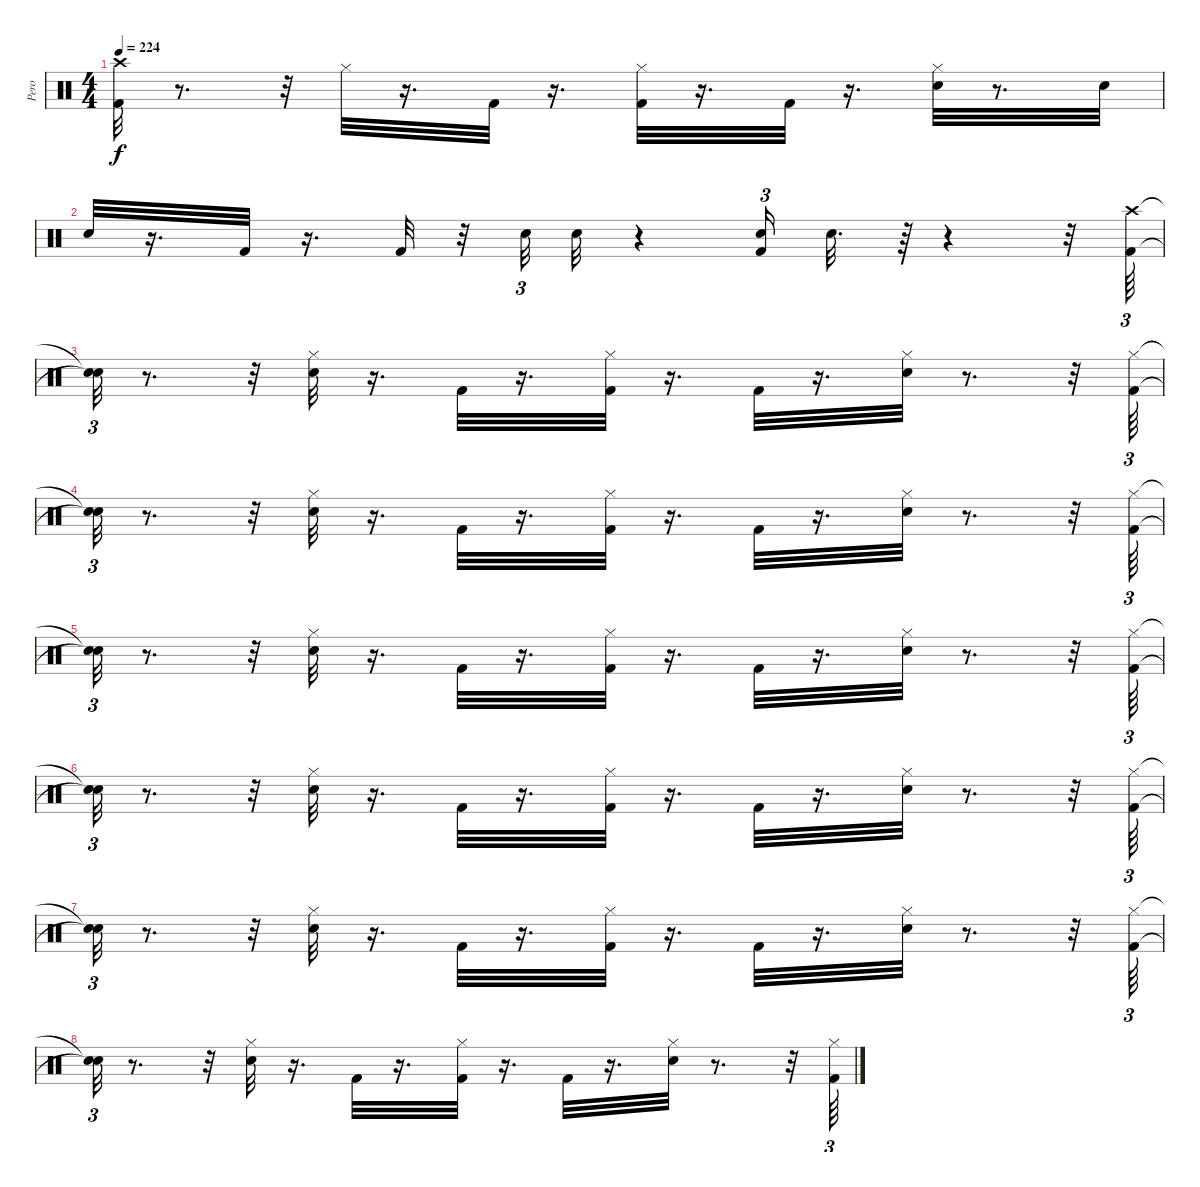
\track ("Pero" "Pero") {instrument percussion}
\staff {score}
\articulation defaults
\ts (4 4)
\tempo 224
\clef neutral
\ks c
("Crash high (hit)" "Kick (hit) 2").32{dy f} r.8{d} r.32 "Hi-Hat (closed)".32 r.16{d} "Kick (hit) 2".32 r.16{d} ("Hi-Hat (closed)" "Kick (hit) 2").32 r.16{d} "Kick (hit) 2".32 r.16{d} ("Hi-Hat (closed)" "Snare (hit) 2").32 r.8{d} "Snare (hit) 2".32 |
"Snare (hit) 2".32 r.16{d} "Kick (hit) 2".32 r.16{d} "Kick (hit) 2".32 r.32 "Snare (hit) 2".32{tu (3 2)} "Snare (hit) 2".32 r.4 ("Kick (hit) 2" "Snare (hit) 2").16{tu (3 2)} "Snare (hit) 2".32{d} r.64 r.4 r.32 ("Crash high (hit)" "Kick (hit) 2").64{tu (3 2)} |
("Snare (hit)"{t} "Snare (hit)"{t}).32{tu (3 2)} r.8{d} r.32 ("Hi-Hat (closed)" "Snare (hit) 2").32 r.16{d} "Kick (hit) 2".32 r.16{d} ("Hi-Hat (closed)" "Kick (hit) 2").32 r.16{d} "Kick (hit) 2".32 r.16{d} ("Hi-Hat (closed)" "Snare (hit) 2").32 r.8{d} r.32 ("Kick (hit) 2" "Hi-Hat (closed)").64{tu (3 2)} |
("Snare (hit)"{t} "Snare (hit)"{t}).32{tu (3 2)} r.8{d} r.32 ("Hi-Hat (closed)" "Snare (hit) 2").32 r.16{d} "Kick (hit) 2".32 r.16{d} ("Hi-Hat (closed)" "Kick (hit) 2").32 r.16{d} "Kick (hit) 2".32 r.16{d} ("Hi-Hat (closed)" "Snare (hit) 2").32 r.8{d} r.32 ("Kick (hit) 2" "Hi-Hat (closed)").64{tu (3 2)} |
("Snare (hit)"{t} "Snare (hit)"{t}).32{tu (3 2)} r.8{d} r.32 ("Hi-Hat (closed)" "Snare (hit) 2").32 r.16{d} "Kick (hit) 2".32 r.16{d} ("Hi-Hat (closed)" "Kick (hit) 2").32 r.16{d} "Kick (hit) 2".32 r.16{d} ("Hi-Hat (closed)" "Snare (hit) 2").32 r.8{d} r.32 ("Kick (hit) 2" "Hi-Hat (closed)").64{tu (3 2)} |
("Snare (hit)"{t} "Snare (hit)"{t}).32{tu (3 2)} r.8{d} r.32 ("Hi-Hat (closed)" "Snare (hit) 2").32 r.16{d} "Kick (hit) 2".32 r.16{d} ("Hi-Hat (closed)" "Kick (hit) 2").32 r.16{d} "Kick (hit) 2".32 r.16{d} ("Hi-Hat (closed)" "Snare (hit) 2").32 r.8{d} r.32 ("Kick (hit) 2" "Hi-Hat (closed)").64{tu (3 2)} |
("Snare (hit)"{t} "Snare (hit)"{t}).32{tu (3 2)} r.8{d} r.32 ("Hi-Hat (closed)" "Snare (hit) 2").32 r.16{d} "Kick (hit) 2".32 r.16{d} ("Hi-Hat (closed)" "Kick (hit) 2").32 r.16{d} "Kick (hit) 2".32 r.16{d} ("Hi-Hat (closed)" "Snare (hit) 2").32 r.8{d} r.32 ("Kick (hit) 2" "Hi-Hat (closed)").64{tu (3 2)} |
("Snare (hit)"{t} "Snare (hit)"{t}).32{tu (3 2)} r.8{d} r.32 ("Hi-Hat (closed)" "Snare (hit) 2").32 r.16{d} "Kick (hit) 2".32 r.16{d} ("Hi-Hat (closed)" "Kick (hit) 2").32 r.16{d} "Kick (hit) 2".32 r.16{d} ("Hi-Hat (closed)" "Snare (hit) 2").32 r.8{d} r.32 ("Kick (hit) 2" "Hi-Hat (closed)").64{tu (3 2)}
